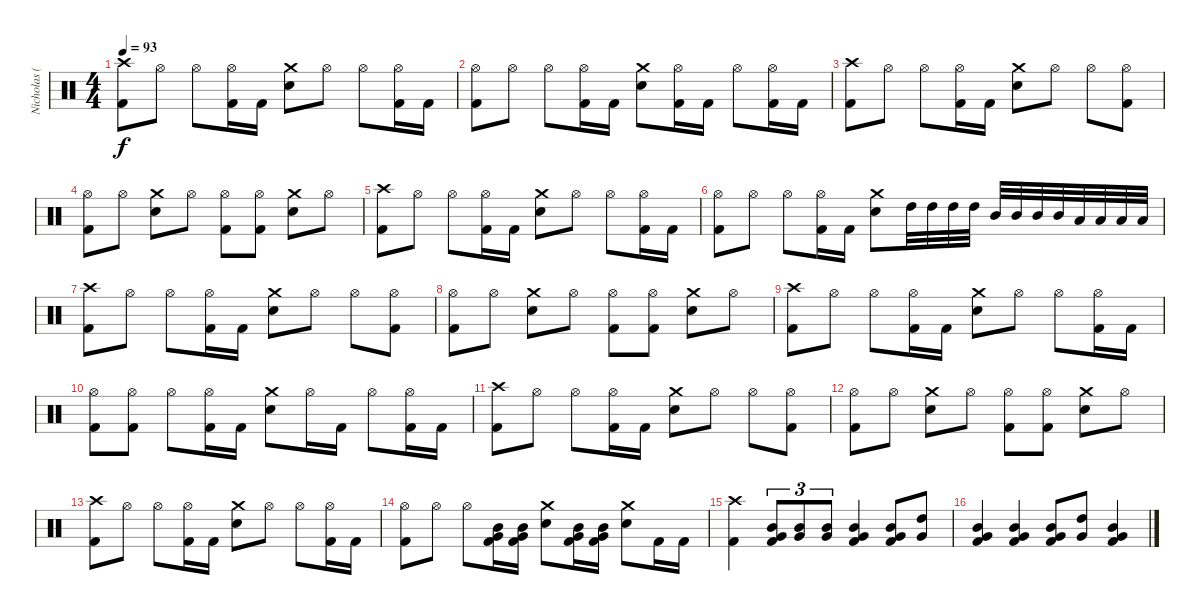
\track ("Nicholas (Drums)" "Nicholas (") {instrument percussion}
\staff {score}
\articulation defaults
\ts (4 4)
\tempo 93
\clef neutral
\ks c
("Crash high (hit)" "Kick (hit) 2").8{dy f} "Hi-Hat (open)".8 "Hi-Hat (open)".8 ("Hi-Hat (open)" "Kick (hit) 2").16 "Kick (hit) 2".16 ("Crash medium (hit)" "Electric Snare (hit)").8 "Hi-Hat (open)".8 "Hi-Hat (open)".8 ("Hi-Hat (open)" "Kick (hit) 2").16 "Kick (hit) 2".16 |
("Hi-Hat (open)" "Kick (hit) 2").8 "Hi-Hat (open)".8 "Hi-Hat (open)".8 ("Hi-Hat (open)" "Kick (hit) 2").16 "Kick (hit) 2".16 ("Crash medium (hit)" "Electric Snare (hit)").8 ("Hi-Hat (open)" "Kick (hit) 2").16 "Kick (hit) 2".16 "Hi-Hat (open)".8 ("Hi-Hat (open)" "Kick (hit) 2").16 "Kick (hit) 2".16 |
("Crash high (hit)" "Kick (hit) 2").8 "Hi-Hat (open)".8 "Hi-Hat (open)".8 ("Hi-Hat (open)" "Kick (hit) 2").16 "Kick (hit) 2".16 ("Crash medium (hit)" "Electric Snare (hit)").8 "Hi-Hat (open)".8 "Hi-Hat (open)".8 ("Hi-Hat (open)" "Kick (hit) 2").8 |
("Hi-Hat (open)" "Kick (hit) 2").8 "Hi-Hat (open)".8 ("Crash medium (hit)" "Electric Snare (hit)").8 "Hi-Hat (open)".8 ("Hi-Hat (open)" "Kick (hit) 2").8 ("Hi-Hat (open)" "Kick (hit) 2").8 ("Crash medium (hit)" "Electric Snare (hit)").8 "Hi-Hat (open)".8 |
("Crash high (hit)" "Kick (hit) 2").8 "Hi-Hat (open)".8 "Hi-Hat (open)".8 ("Hi-Hat (open)" "Kick (hit) 2").16 "Kick (hit) 2".16 ("Crash medium (hit)" "Electric Snare (hit)").8 "Hi-Hat (open)".8 "Hi-Hat (open)".8 ("Hi-Hat (open)" "Kick (hit) 2").16 "Kick (hit) 2".16 |
("Hi-Hat (open)" "Kick (hit) 2").8 "Hi-Hat (open)".8 "Hi-Hat (open)".8 ("Hi-Hat (open)" "Kick (hit) 2").16 "Kick (hit) 2".16 ("Crash medium (hit)" "Electric Snare (hit)").8 "High Tom (hit)".32 "High Tom (hit)".32 "High Tom (hit)".32 "High Tom (hit)".32 "Mid Tom (hit)".32 "Mid Tom (hit)".32 "Mid Tom (hit)".32 "Mid Tom (hit)".32 "Low Tom (hit)".32 "Low Tom (hit)".32 "Low Tom (hit)".32 "Low Tom (hit)".32 |
("Crash high (hit)" "Kick (hit) 2").8 "Hi-Hat (open)".8 "Hi-Hat (open)".8 ("Hi-Hat (open)" "Kick (hit) 2").16 "Kick (hit) 2".16 ("Crash medium (hit)" "Electric Snare (hit)").8 "Hi-Hat (open)".8 "Hi-Hat (open)".8 ("Hi-Hat (open)" "Kick (hit) 2").8 |
("Hi-Hat (open)" "Kick (hit) 2").8 "Hi-Hat (open)".8 ("Crash medium (hit)" "Electric Snare (hit)").8 "Hi-Hat (open)".8 ("Hi-Hat (open)" "Kick (hit) 2").8 ("Hi-Hat (open)" "Kick (hit) 2").8 ("Crash medium (hit)" "Electric Snare (hit)").8 "Hi-Hat (open)".8 |
("Crash high (hit)" "Kick (hit) 2").8 "Hi-Hat (open)".8 "Hi-Hat (open)".8 ("Hi-Hat (open)" "Kick (hit) 2").16 "Kick (hit) 2".16 ("Crash medium (hit)" "Electric Snare (hit)").8 "Hi-Hat (open)".8 "Hi-Hat (open)".8 ("Hi-Hat (open)" "Kick (hit) 2").16 "Kick (hit) 2".16 |
("Hi-Hat (open)" "Kick (hit) 2").8 ("Hi-Hat (open)" "Kick (hit) 2").8 "Hi-Hat (open)".8 ("Hi-Hat (open)" "Kick (hit) 2").16 "Kick (hit) 2".16 ("Crash medium (hit)" "Electric Snare (hit)").8 "Hi-Hat (open)".16 "Kick (hit) 2".16 "Hi-Hat (open)".8 ("Hi-Hat (open)" "Kick (hit) 2").16 "Kick (hit) 2".16 |
("Crash high (hit)" "Kick (hit) 2").8 "Hi-Hat (open)".8 "Hi-Hat (open)".8 ("Hi-Hat (open)" "Kick (hit) 2").16 "Kick (hit) 2".16 ("Crash medium (hit)" "Electric Snare (hit)").8 "Hi-Hat (open)".8 "Hi-Hat (open)".8 ("Hi-Hat (open)" "Kick (hit) 2").8 |
("Hi-Hat (open)" "Kick (hit) 2").8 "Hi-Hat (open)".8 ("Crash medium (hit)" "Electric Snare (hit)").8 "Hi-Hat (open)".8 ("Hi-Hat (open)" "Kick (hit) 2").8 ("Hi-Hat (open)" "Kick (hit) 2").8 ("Crash medium (hit)" "Electric Snare (hit)").8 "Hi-Hat (open)".8 |
("Crash high (hit)" "Kick (hit) 2").8 "Hi-Hat (open)".8 "Hi-Hat (open)".8 ("Hi-Hat (open)" "Kick (hit) 2").16 "Kick (hit) 2".16 ("Crash medium (hit)" "Electric Snare (hit)").8 "Hi-Hat (open)".8 "Hi-Hat (open)".8 ("Hi-Hat (open)" "Kick (hit) 2").16 "Kick (hit) 2".16 |
("Hi-Hat (open)" "Kick (hit) 2").8 "Hi-Hat (open)".8 "Hi-Hat (open)".8 ("Mid Tom (hit)" "Very Low Tom (hit)" "Kick (hit) 2").16 ("Mid Tom (hit)" "Very Low Tom (hit)" "Kick (hit) 2").16 ("Crash medium (hit)" "Electric Snare (hit)").8 ("Mid Tom (hit)" "Very Low Tom (hit)" "Kick (hit) 2").16 ("Mid Tom (hit)" "Very Low Tom (hit)" "Kick (hit) 2").16 ("Crash medium (hit)" "Electric Snare (hit)").8 "Kick (hit) 2".16 "Kick (hit) 2".16 |
("Crash high (hit)" "Kick (hit) 2").4 ("Mid Tom (hit)" "Very Low Tom (hit)" "Kick (hit) 2").8{tu (3 2)} ("Mid Tom (hit)" "Very Low Tom (hit)").8{tu (3 2)} ("Mid Tom (hit)" "Very Low Tom (hit)").8{tu (3 2)} ("Mid Tom (hit)" "Very Low Tom (hit)" "Kick (hit) 2").4 ("Mid Tom (hit)" "Very Low Tom (hit)" "Kick (hit) 2").8 ("High Tom (hit)" "Very Low Tom (hit)").8 |
("Mid Tom (hit)" "Very Low Tom (hit)" "Kick (hit) 2").4 ("Mid Tom (hit)" "Very Low Tom (hit)" "Kick (hit) 2").4 ("Mid Tom (hit)" "Very Low Tom (hit)" "Kick (hit) 2").8 ("High Tom (hit)" "Very Low Tom (hit)").8 ("Mid Tom (hit)" "Very Low Tom (hit)" "Kick (hit) 2").4
